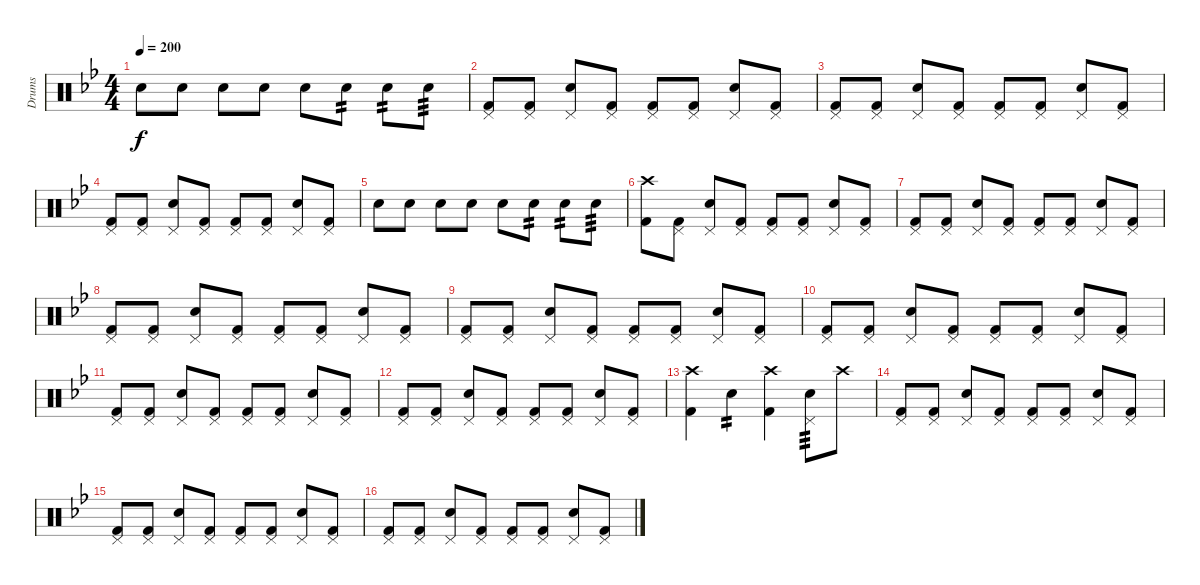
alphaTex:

\track ("Drums" "Drums") {instrument percussion}
\staff {score}
\articulation defaults
\ts (4 4)
\tempo 200
\clef neutral
\ks bb "Electric Snare (hit)".8{dy f} "Electric Snare (hit)".8 "Electric Snare (hit)".8 "Electric Snare (hit)".8 "Electric Snare (hit)".8 "Electric Snare (hit)".8{tp 2} "Electric Snare (hit)".8{tp 2} "Electric Snare (hit)".8{tp 3}
|
("Pedal Hi-Hat (hit)" "Kick (hit) 2").8 ("Pedal Hi-Hat (hit)" "Kick (hit) 2").8 ("Pedal Hi-Hat (hit)" "Electric Snare (hit)").8 ("Pedal Hi-Hat (hit)" "Kick (hit) 2").8 ("Pedal Hi-Hat (hit)" "Kick (hit) 2").8 ("Pedal Hi-Hat (hit)" "Kick (hit) 2").8 ("Pedal Hi-Hat (hit)" "Electric Snare (hit)").8 ("Pedal Hi-Hat (hit)" "Kick (hit) 2").8 |
("Pedal Hi-Hat (hit)" "Kick (hit) 2").8 ("Pedal Hi-Hat (hit)" "Kick (hit) 2").8 ("Pedal Hi-Hat (hit)" "Electric Snare (hit)").8 ("Pedal Hi-Hat (hit)" "Kick (hit) 2").8 ("Pedal Hi-Hat (hit)" "Kick (hit) 2").8 ("Pedal Hi-Hat (hit)" "Kick (hit) 2").8 ("Pedal Hi-Hat (hit)" "Electric Snare (hit)").8 ("Pedal Hi-Hat (hit)" "Kick (hit) 2").8 |
("Pedal Hi-Hat (hit)" "Kick (hit) 2").8 ("Pedal Hi-Hat (hit)" "Kick (hit) 2").8 ("Pedal Hi-Hat (hit)" "Electric Snare (hit)").8 ("Pedal Hi-Hat (hit)" "Kick (hit) 2").8 ("Pedal Hi-Hat (hit)" "Kick (hit) 2").8 ("Pedal Hi-Hat (hit)" "Kick (hit) 2").8 ("Pedal Hi-Hat (hit)" "Electric Snare (hit)").8 ("Pedal Hi-Hat (hit)" "Kick (hit) 2").8 |
"Electric Snare (hit)".8 "Electric Snare (hit)".8 "Electric Snare (hit)".8 "Electric Snare (hit)".8 "Electric Snare (hit)".8 "Electric Snare (hit)".8{tp 2} "Electric Snare (hit)".8{tp 2} "Electric Snare (hit)".8{tp 3} |
("Crash high (hit)" "Kick (hit) 2").8 ("Pedal Hi-Hat (hit)" "Kick (hit) 2").8 ("Pedal Hi-Hat (hit)" "Electric Snare (hit)").8 ("Pedal Hi-Hat (hit)" "Kick (hit) 2").8 ("Pedal Hi-Hat (hit)" "Kick (hit) 2").8 ("Pedal Hi-Hat (hit)" "Kick (hit) 2").8 ("Pedal Hi-Hat (hit)" "Electric Snare (hit)").8 ("Pedal Hi-Hat (hit)" "Kick (hit) 2").8 |
("Pedal Hi-Hat (hit)" "Kick (hit) 2").8 ("Pedal Hi-Hat (hit)" "Kick (hit) 2").8 ("Pedal Hi-Hat (hit)" "Electric Snare (hit)").8 ("Pedal Hi-Hat (hit)" "Kick (hit) 2").8 ("Pedal Hi-Hat (hit)" "Kick (hit) 2").8 ("Pedal Hi-Hat (hit)" "Kick (hit) 2").8 ("Pedal Hi-Hat (hit)" "Electric Snare (hit)").8 ("Pedal Hi-Hat (hit)" "Kick (hit) 2").8 |
("Pedal Hi-Hat (hit)" "Kick (hit) 2").8 ("Pedal Hi-Hat (hit)" "Kick (hit) 2").8 ("Pedal Hi-Hat (hit)" "Electric Snare (hit)").8 ("Pedal Hi-Hat (hit)" "Kick (hit) 2").8 ("Pedal Hi-Hat (hit)" "Kick (hit) 2").8 ("Pedal Hi-Hat (hit)" "Kick (hit) 2").8 ("Pedal Hi-Hat (hit)" "Electric Snare (hit)").8 ("Pedal Hi-Hat (hit)" "Kick (hit) 2").8 |
("Pedal Hi-Hat (hit)" "Kick (hit) 2").8 ("Pedal Hi-Hat (hit)" "Kick (hit) 2").8 ("Pedal Hi-Hat (hit)" "Electric Snare (hit)").8 ("Pedal Hi-Hat (hit)" "Kick (hit) 2").8 ("Pedal Hi-Hat (hit)" "Kick (hit) 2").8 ("Pedal Hi-Hat (hit)" "Kick (hit) 2").8 ("Pedal Hi-Hat (hit)" "Electric Snare (hit)").8 ("Pedal Hi-Hat (hit)" "Kick (hit) 2").8 |
("Pedal Hi-Hat (hit)" "Kick (hit) 2").8 ("Pedal Hi-Hat (hit)" "Kick (hit) 2").8 ("Pedal Hi-Hat (hit)" "Electric Snare (hit)").8 ("Pedal Hi-Hat (hit)" "Kick (hit) 2").8 ("Pedal Hi-Hat (hit)" "Kick (hit) 2").8 ("Pedal Hi-Hat (hit)" "Kick (hit) 2").8 ("Pedal Hi-Hat (hit)" "Electric Snare (hit)").8 ("Pedal Hi-Hat (hit)" "Kick (hit) 2").8 |
("Pedal Hi-Hat (hit)" "Kick (hit) 2").8 ("Pedal Hi-Hat (hit)" "Kick (hit) 2").8 ("Pedal Hi-Hat (hit)" "Electric Snare (hit)").8 ("Pedal Hi-Hat (hit)" "Kick (hit) 2").8 ("Pedal Hi-Hat (hit)" "Kick (hit) 2").8 ("Pedal Hi-Hat (hit)" "Kick (hit) 2").8 ("Pedal Hi-Hat (hit)" "Electric Snare (hit)").8 ("Pedal Hi-Hat (hit)" "Kick (hit) 2").8 |
("Pedal Hi-Hat (hit)" "Kick (hit) 2").8 ("Pedal Hi-Hat (hit)" "Kick (hit) 2").8 ("Pedal Hi-Hat (hit)" "Electric Snare (hit)").8 ("Pedal Hi-Hat (hit)" "Kick (hit) 2").8 ("Pedal Hi-Hat (hit)" "Kick (hit) 2").8 ("Pedal Hi-Hat (hit)" "Kick (hit) 2").8 ("Pedal Hi-Hat (hit)" "Electric Snare (hit)").8 ("Pedal Hi-Hat (hit)" "Kick (hit) 2").8 |
("Crash high (hit)" "Kick (hit) 2").4 "Electric Snare (hit)".4{tp 2} ("Crash high (hit)" "Kick (hit) 2").4 ("Pedal Hi-Hat (hit)" "Electric Snare (hit)").8{tp 3} "Crash high (hit)".8 |
("Pedal Hi-Hat (hit)" "Kick (hit) 2").8 ("Pedal Hi-Hat (hit)" "Kick (hit) 2").8 ("Pedal Hi-Hat (hit)" "Electric Snare (hit)").8 ("Pedal Hi-Hat (hit)" "Kick (hit) 2").8 ("Pedal Hi-Hat (hit)" "Kick (hit) 2").8 ("Pedal Hi-Hat (hit)" "Kick (hit) 2").8 ("Pedal Hi-Hat (hit)" "Electric Snare (hit)").8 ("Pedal Hi-Hat (hit)" "Kick (hit) 2").8 |
("Pedal Hi-Hat (hit)" "Kick (hit) 2").8 ("Pedal Hi-Hat (hit)" "Kick (hit) 2").8 ("Pedal Hi-Hat (hit)" "Electric Snare (hit)").8 ("Pedal Hi-Hat (hit)" "Kick (hit) 2").8 ("Pedal Hi-Hat (hit)" "Kick (hit) 2").8 ("Pedal Hi-Hat (hit)" "Kick (hit) 2").8 ("Pedal Hi-Hat (hit)" "Electric Snare (hit)").8 ("Pedal Hi-Hat (hit)" "Kick (hit) 2").8 |
("Pedal Hi-Hat (hit)" "Kick (hit) 2").8 ("Pedal Hi-Hat (hit)" "Kick (hit) 2").8 ("Pedal Hi-Hat (hit)" "Electric Snare (hit)").8 ("Pedal Hi-Hat (hit)" "Kick (hit) 2").8 ("Pedal Hi-Hat (hit)" "Kick (hit) 2").8 ("Pedal Hi-Hat (hit)" "Kick (hit) 2").8 ("Pedal Hi-Hat (hit)" "Electric Snare (hit)").8 ("Pedal Hi-Hat (hit)" "Kick (hit) 2").8
